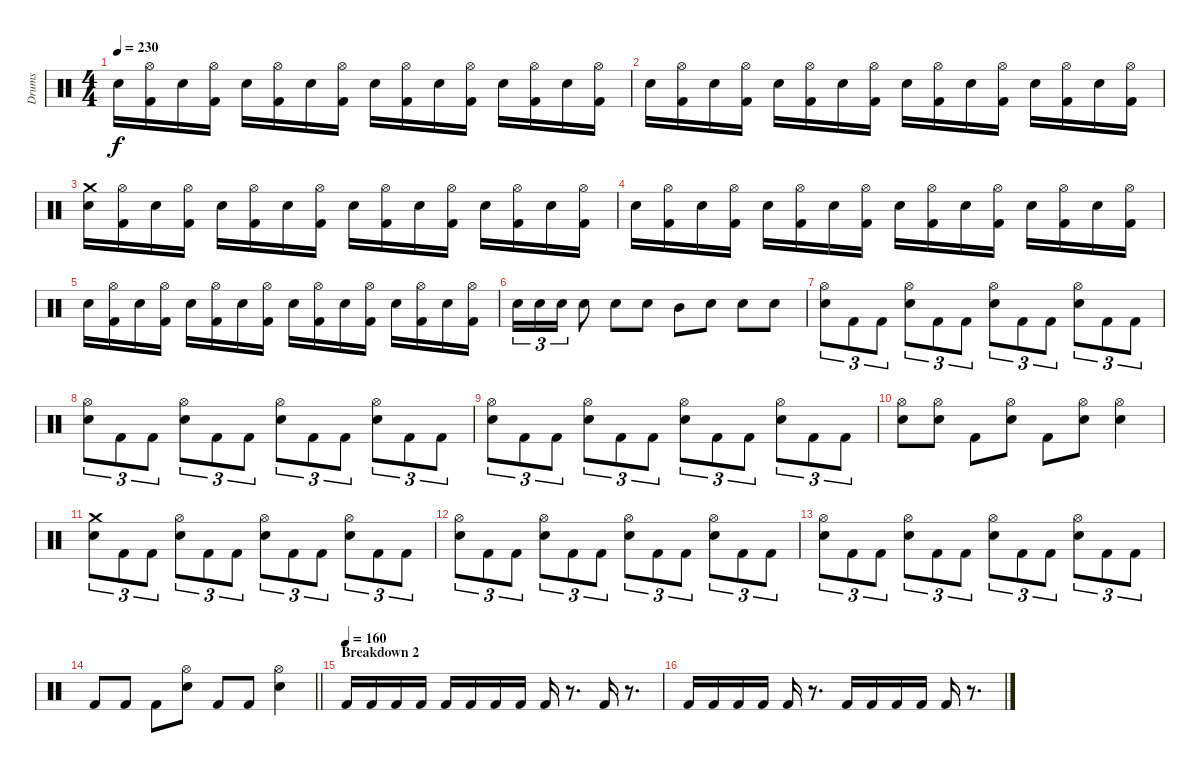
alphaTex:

\track ("Drums" "Drums") {instrument percussion}
\staff {score}
\articulation defaults
\ts (4 4)
\tempo 230
\clef neutral
\ks c "Snare (hit) 2".16{dy f}
("Hi-Hat (open)" "Kick (hit) 2").16 "Snare (hit) 2".16 ("Hi-Hat (open)" "Kick (hit) 2").16 "Snare (hit) 2".16 ("Hi-Hat (open)" "Kick (hit) 2").16 "Snare (hit) 2".16 ("Hi-Hat (open)" "Kick (hit) 2").16 "Snare (hit) 2".16 ("Hi-Hat (open)" "Kick (hit) 2").16 "Snare (hit) 2".16 ("Hi-Hat (open)" "Kick (hit) 2").16 "Snare (hit) 2".16 ("Hi-Hat (open)" "Kick (hit) 2").16 "Snare (hit) 2".16 ("Hi-Hat (open)" "Kick (hit) 2").16 |
"Snare (hit) 2".16 ("Hi-Hat (open)" "Kick (hit) 2").16 "Snare (hit) 2".16 ("Hi-Hat (open)" "Kick (hit) 2").16 "Snare (hit) 2".16 ("Hi-Hat (open)" "Kick (hit) 2").16 "Snare (hit) 2".16 ("Hi-Hat (open)" "Kick (hit) 2").16 "Snare (hit) 2".16 ("Hi-Hat (open)" "Kick (hit) 2").16 "Snare (hit) 2".16 ("Hi-Hat (open)" "Kick (hit) 2").16 "Snare (hit) 2".16 ("Hi-Hat (open)" "Kick (hit) 2").16 "Snare (hit) 2".16 ("Hi-Hat (open)" "Kick (hit) 2").16 |
("Crash medium (hit)" "Snare (hit) 2").16 ("Hi-Hat (open)" "Kick (hit) 2").16 "Snare (hit) 2".16 ("Hi-Hat (open)" "Kick (hit) 2").16 "Snare (hit) 2".16 ("Hi-Hat (open)" "Kick (hit) 2").16 "Snare (hit) 2".16 ("Hi-Hat (open)" "Kick (hit) 2").16 "Snare (hit) 2".16 ("Hi-Hat (open)" "Kick (hit) 2").16 "Snare (hit) 2".16 ("Hi-Hat (open)" "Kick (hit) 2").16 "Snare (hit) 2".16 ("Hi-Hat (open)" "Kick (hit) 2").16 "Snare (hit) 2".16 ("Hi-Hat (open)" "Kick (hit) 2").16 |
"Snare (hit) 2".16 ("Hi-Hat (open)" "Kick (hit) 2").16 "Snare (hit) 2".16 ("Hi-Hat (open)" "Kick (hit) 2").16 "Snare (hit) 2".16 ("Hi-Hat (open)" "Kick (hit) 2").16 "Snare (hit) 2".16 ("Hi-Hat (open)" "Kick (hit) 2").16 "Snare (hit) 2".16 ("Hi-Hat (open)" "Kick (hit) 2").16 "Snare (hit) 2".16 ("Hi-Hat (open)" "Kick (hit) 2").16 "Snare (hit) 2".16 ("Hi-Hat (open)" "Kick (hit) 2").16 "Snare (hit) 2".16 ("Hi-Hat (open)" "Kick (hit) 2").16 |
"Snare (hit) 2".16 ("Hi-Hat (open)" "Kick (hit) 2").16 "Snare (hit) 2".16 ("Hi-Hat (open)" "Kick (hit) 2").16 "Snare (hit) 2".16 ("Hi-Hat (open)" "Kick (hit) 2").16 "Snare (hit) 2".16 ("Hi-Hat (open)" "Kick (hit) 2").16 "Snare (hit) 2".16 ("Hi-Hat (open)" "Kick (hit) 2").16 "Snare (hit) 2".16 ("Hi-Hat (open)" "Kick (hit) 2").16 "Snare (hit) 2".16 ("Hi-Hat (open)" "Kick (hit) 2").16 "Snare (hit) 2".16 ("Hi-Hat (open)" "Kick (hit) 2").16 |
"Snare (hit) 2".16{tu (3 2)} "Snare (hit) 2".16{tu (3 2)} "Snare (hit) 2".16{tu (3 2)} "Snare (hit) 2".8 "Snare (hit) 2".8 "Snare (hit) 2".8 "Mid Tom (hit)".8 "Snare (hit) 2".8 "Snare (hit) 2".8 "Snare (hit) 2".8 |
("Hi-Hat (open)" "Snare (hit) 2").8{tu (3 2)} "Kick (hit) 2".8{tu (3 2)} "Kick (hit) 2".8{tu (3 2)} ("Hi-Hat (open)" "Snare (hit) 2").8{tu (3 2)} "Kick (hit) 2".8{tu (3 2)} "Kick (hit) 2".8{tu (3 2)} ("Hi-Hat (open)" "Snare (hit) 2").8{tu (3 2)} "Kick (hit) 2".8{tu (3 2)} "Kick (hit) 2".8{tu (3 2)} ("Hi-Hat (open)" "Snare (hit) 2").8{tu (3 2)} "Kick (hit) 2".8{tu (3 2)} "Kick (hit) 2".8{tu (3 2)} |
("Hi-Hat (open)" "Snare (hit) 2").8{tu (3 2)} "Kick (hit) 2".8{tu (3 2)} "Kick (hit) 2".8{tu (3 2)} ("Hi-Hat (open)" "Snare (hit) 2").8{tu (3 2)} "Kick (hit) 2".8{tu (3 2)} "Kick (hit) 2".8{tu (3 2)} ("Hi-Hat (open)" "Snare (hit) 2").8{tu (3 2)} "Kick (hit) 2".8{tu (3 2)} "Kick (hit) 2".8{tu (3 2)} ("Hi-Hat (open)" "Snare (hit) 2").8{tu (3 2)} "Kick (hit) 2".8{tu (3 2)} "Kick (hit) 2".8{tu (3 2)} |
("Hi-Hat (open)" "Snare (hit) 2").8{tu (3 2)} "Kick (hit) 2".8{tu (3 2)} "Kick (hit) 2".8{tu (3 2)} ("Hi-Hat (open)" "Snare (hit) 2").8{tu (3 2)} "Kick (hit) 2".8{tu (3 2)} "Kick (hit) 2".8{tu (3 2)} ("Hi-Hat (open)" "Snare (hit) 2").8{tu (3 2)} "Kick (hit) 2".8{tu (3 2)} "Kick (hit) 2".8{tu (3 2)} ("Hi-Hat (open)" "Snare (hit) 2").8{tu (3 2)} "Kick (hit) 2".8{tu (3 2)} "Kick (hit) 2".8{tu (3 2)} |
("Hi-Hat (open)" "Snare (hit) 2").8 ("Hi-Hat (open)" "Snare (hit) 2").8 "Kick (hit) 2".8 ("Hi-Hat (open)" "Snare (hit) 2").8 "Kick (hit) 2".8 ("Hi-Hat (open)" "Snare (hit) 2").8 ("Hi-Hat (open)" "Snare (hit) 2").4 |
("Crash medium (hit)" "Snare (hit) 2").8{tu (3 2)} "Kick (hit) 2".8{tu (3 2)} "Kick (hit) 2".8{tu (3 2)} ("Hi-Hat (open)" "Snare (hit) 2").8{tu (3 2)} "Kick (hit) 2".8{tu (3 2)} "Kick (hit) 2".8{tu (3 2)} ("Hi-Hat (open)" "Snare (hit) 2").8{tu (3 2)} "Kick (hit) 2".8{tu (3 2)} "Kick (hit) 2".8{tu (3 2)} ("Hi-Hat (open)" "Snare (hit) 2").8{tu (3 2)} "Kick (hit) 2".8{tu (3 2)} "Kick (hit) 2".8{tu (3 2)} |
("Hi-Hat (open)" "Snare (hit) 2").8{tu (3 2)} "Kick (hit) 2".8{tu (3 2)} "Kick (hit) 2".8{tu (3 2)} ("Hi-Hat (open)" "Snare (hit) 2").8{tu (3 2)} "Kick (hit) 2".8{tu (3 2)} "Kick (hit) 2".8{tu (3 2)} ("Hi-Hat (open)" "Snare (hit) 2").8{tu (3 2)} "Kick (hit) 2".8{tu (3 2)} "Kick (hit) 2".8{tu (3 2)} ("Hi-Hat (open)" "Snare (hit) 2").8{tu (3 2)} "Kick (hit) 2".8{tu (3 2)} "Kick (hit) 2".8{tu (3 2)} |
("Hi-Hat (open)" "Snare (hit) 2").8{tu (3 2)} "Kick (hit) 2".8{tu (3 2)} "Kick (hit) 2".8{tu (3 2)} ("Hi-Hat (open)" "Snare (hit) 2").8{tu (3 2)} "Kick (hit) 2".8{tu (3 2)} "Kick (hit) 2".8{tu (3 2)} ("Hi-Hat (open)" "Snare (hit) 2").8{tu (3 2)} "Kick (hit) 2".8{tu (3 2)} "Kick (hit) 2".8{tu (3 2)} ("Hi-Hat (open)" "Snare (hit) 2").8{tu (3 2)} "Kick (hit) 2".8{tu (3 2)} "Kick (hit) 2".8{tu (3 2)} |
\barLineRight lightlight "Kick (hit) 2".8 "Kick (hit) 2".8 "Kick (hit) 2".8
("Hi-Hat (open)" "Snare (hit) 2").8 "Kick (hit) 2".8 "Kick (hit) 2".8 ("Hi-Hat (open)" "Snare (hit) 2").4 |
\section ("" "Breakdown 2")
\tempo (160)
"Kick (hit) 2".16 "Kick (hit) 2".16 "Kick (hit) 2".16 "Kick (hit) 2".16 "Kick (hit) 2".16 "Kick (hit) 2".16 "Kick (hit) 2".16 "Kick (hit) 2".16 "Kick (hit) 2".16 r.8{d} "Kick (hit) 2".16 r.8{d} |
"Kick (hit) 2".16 "Kick (hit) 2".16 "Kick (hit) 2".16 "Kick (hit) 2".16 "Kick (hit) 2".16 r.8{d} "Kick (hit) 2".16 "Kick (hit) 2".16 "Kick (hit) 2".16 "Kick (hit) 2".16 "Kick (hit) 2".16 r.8{d}
